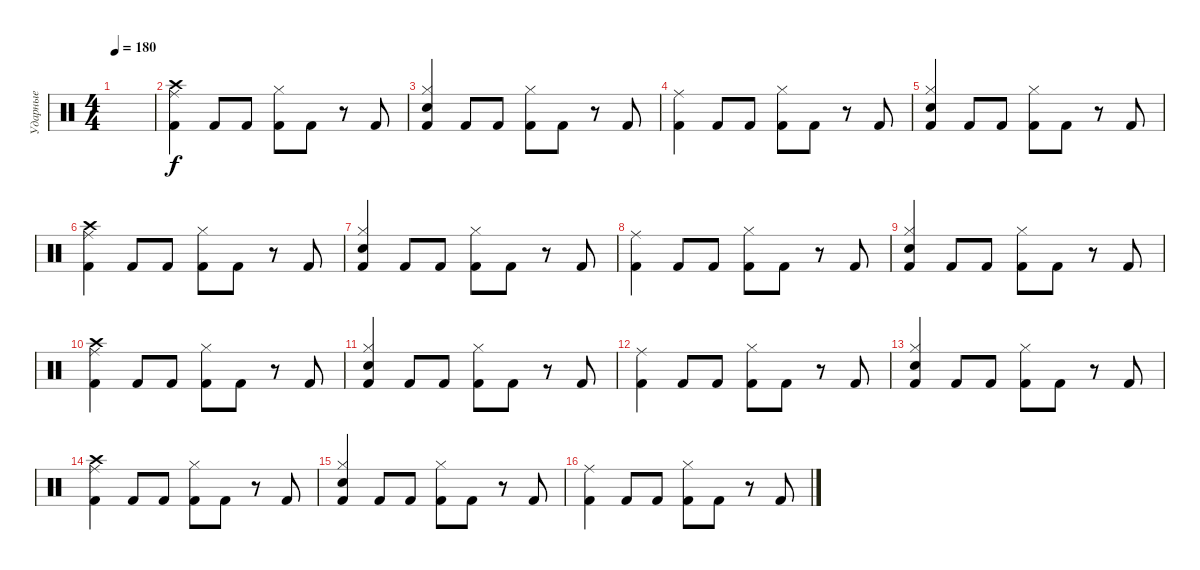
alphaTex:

\track ("Ударные" "Ударные") {instrument percussion}
\staff {score}
\articulation defaults
\ts (4 4)
\tempo 180
\clef neutral
\ks c
|
("Ride (middle)" "Crash high (hit)" "Kick (hit) 2").4 "Kick (hit) 2".8 "Kick (hit) 2".8 ("Kick (hit) 2" "Hi-Hat (closed)").8 "Kick (hit) 2".8 r.8 "Kick (hit) 2".8 |
("Snare (hit) 2" "Hi-Hat (closed)" "Kick (hit) 2").4 "Kick (hit) 2".8 "Kick (hit) 2".8 ("Kick (hit) 2" "Hi-Hat (closed)").8 "Kick (hit) 2".8 r.8 "Kick (hit) 2".8 |
("Ride (middle)" "Kick (hit) 2").4 "Kick (hit) 2".8 "Kick (hit) 2".8 ("Kick (hit) 2" "Hi-Hat (closed)").8 "Kick (hit) 2".8 r.8 "Kick (hit) 2".8 |
("Snare (hit) 2" "Hi-Hat (closed)" "Kick (hit) 2").4 "Kick (hit) 2".8 "Kick (hit) 2".8 ("Kick (hit) 2" "Hi-Hat (closed)").8 "Kick (hit) 2".8 r.8 "Kick (hit) 2".8 |
("Ride (middle)" "Crash high (hit)" "Kick (hit) 2").4 "Kick (hit) 2".8 "Kick (hit) 2".8 ("Kick (hit) 2" "Hi-Hat (closed)").8 "Kick (hit) 2".8 r.8 "Kick (hit) 2".8 |
("Snare (hit) 2" "Hi-Hat (closed)" "Kick (hit) 2").4 "Kick (hit) 2".8 "Kick (hit) 2".8 ("Kick (hit) 2" "Hi-Hat (closed)").8 "Kick (hit) 2".8 r.8 "Kick (hit) 2".8 |
("Ride (middle)" "Kick (hit) 2").4 "Kick (hit) 2".8 "Kick (hit) 2".8 ("Kick (hit) 2" "Hi-Hat (closed)").8 "Kick (hit) 2".8 r.8 "Kick (hit) 2".8 |
("Snare (hit) 2" "Hi-Hat (closed)" "Kick (hit) 2").4 "Kick (hit) 2".8 "Kick (hit) 2".8 ("Kick (hit) 2" "Hi-Hat (closed)").8 "Kick (hit) 2".8 r.8 "Kick (hit) 2".8 |
("Ride (middle)" "Crash high (hit)" "Kick (hit) 2").4 "Kick (hit) 2".8 "Kick (hit) 2".8 ("Kick (hit) 2" "Hi-Hat (closed)").8 "Kick (hit) 2".8 r.8 "Kick (hit) 2".8 |
("Snare (hit) 2" "Hi-Hat (closed)" "Kick (hit) 2").4 "Kick (hit) 2".8 "Kick (hit) 2".8 ("Kick (hit) 2" "Hi-Hat (closed)").8 "Kick (hit) 2".8 r.8 "Kick (hit) 2".8 |
("Ride (middle)" "Kick (hit) 2").4 "Kick (hit) 2".8 "Kick (hit) 2".8 ("Kick (hit) 2" "Hi-Hat (closed)").8 "Kick (hit) 2".8 r.8 "Kick (hit) 2".8 |
("Snare (hit) 2" "Hi-Hat (closed)" "Kick (hit) 2").4 "Kick (hit) 2".8 "Kick (hit) 2".8 ("Kick (hit) 2" "Hi-Hat (closed)").8 "Kick (hit) 2".8 r.8 "Kick (hit) 2".8 |
("Ride (middle)" "Crash high (hit)" "Kick (hit) 2").4 "Kick (hit) 2".8 "Kick (hit) 2".8 ("Kick (hit) 2" "Hi-Hat (closed)").8 "Kick (hit) 2".8 r.8 "Kick (hit) 2".8 |
("Snare (hit) 2" "Hi-Hat (closed)" "Kick (hit) 2").4 "Kick (hit) 2".8 "Kick (hit) 2".8 ("Kick (hit) 2" "Hi-Hat (closed)").8 "Kick (hit) 2".8 r.8 "Kick (hit) 2".8 |
("Ride (middle)" "Kick (hit) 2").4 "Kick (hit) 2".8 "Kick (hit) 2".8 ("Kick (hit) 2" "Hi-Hat (closed)").8 "Kick (hit) 2".8 r.8 "Kick (hit) 2".8
